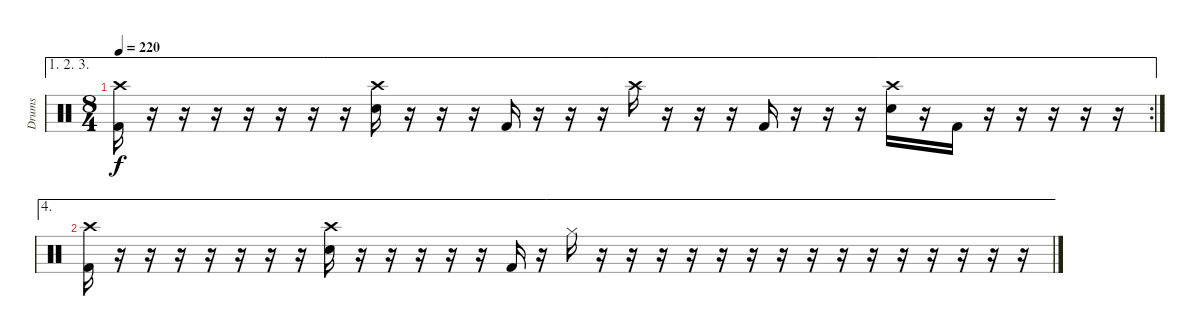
\track ("Drums" "Drums") {instrument percussion}
\staff {score}
\articulation defaults
\ae (1 2 3)
\rc 2
\ts (8 4)
\tempo 220
\clef neutral
\ks c
("Crash high (hit)" "Kick (hit) 2").16{dy f} r.16 r.16 r.16 r.16 r.16 r.16 r.16 ("Crash high (hit)" "Snare (hit) 2").16 r.16 r.16 r.16 "Kick (hit) 2".16 r.16 r.16 r.16 "Crash high (hit)".16 r.16 r.16 r.16 "Kick (hit) 2".16 r.16 r.16 r.16 ("Crash high (hit)" "Snare (hit) 2").16 r.16 "Kick (hit) 2".16 r.16 r.16 r.16 r.16 r.16 |
\ae 4
("Crash high (hit)" "Kick (hit) 2").16 r.16 r.16 r.16 r.16 r.16 r.16 r.16 ("Crash high (hit)" "Snare (hit) 2").16 r.16 r.16 r.16 r.16 r.16 "Kick (hit) 2".16 r.16 "Hi-Hat (closed)".16 r.16 r.16 r.16 r.16 r.16 r.16 r.16 r.16 r.16 r.16 r.16 r.16 r.16 r.16 r.16
